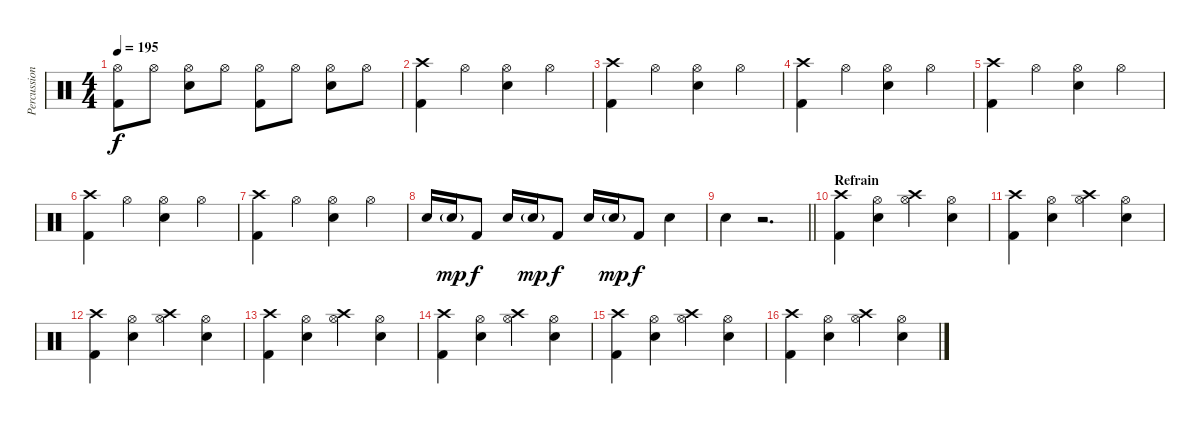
\track ("Percussions" "Percussion") {instrument percussion}
\staff {score}
\articulation defaults
\ts (4 4)
\tempo 195
\clef neutral
\ks c
("Hi-Hat (open)" "Kick (hit) 2").8{dy f} "Hi-Hat (open)".8 ("Hi-Hat (open)" "Electric Snare (hit)").8 "Hi-Hat (open)".8 ("Hi-Hat (open)" "Kick (hit) 2").8 "Hi-Hat (open)".8 ("Hi-Hat (open)" "Electric Snare (hit)").8 "Hi-Hat (open)".8 |
("Crash high (hit)" "Kick (hit) 2").4 "Hi-Hat (open)".4 ("Hi-Hat (open)" "Electric Snare (hit)").4 "Hi-Hat (open)".4 |
("Crash high (hit)" "Kick (hit) 2").4 "Hi-Hat (open)".4 ("Hi-Hat (open)" "Electric Snare (hit)").4 "Hi-Hat (open)".4 |
("Crash high (hit)" "Kick (hit) 2").4 "Hi-Hat (open)".4 ("Hi-Hat (open)" "Electric Snare (hit)").4 "Hi-Hat (open)".4 |
("Crash high (hit)" "Kick (hit) 2").4 "Hi-Hat (open)".4 ("Hi-Hat (open)" "Electric Snare (hit)").4 "Hi-Hat (open)".4 |
("Crash high (hit)" "Kick (hit) 2").4 "Hi-Hat (open)".4 ("Hi-Hat (open)" "Electric Snare (hit)").4 "Hi-Hat (open)".4 |
("Crash high (hit)" "Kick (hit) 2").4 "Hi-Hat (open)".4 ("Hi-Hat (open)" "Electric Snare (hit)").4 "Hi-Hat (open)".4 |
"Electric Snare (hit)".16 "Electric Snare (hit)"{g}.16{dy mp} "Kick (hit) 2".8{dy f} "Electric Snare (hit)".16 "Electric Snare (hit)"{g}.16{dy mp} "Kick (hit) 2".8{dy f} "Electric Snare (hit)".16 "Electric Snare (hit)"{g}.16{dy mp} "Kick (hit) 2".8{dy f} "Electric Snare (hit)".4 |
\barLineRight lightlight "Electric Snare (hit)".4
r.2{d} |
\section ("" "Refrain")
("Crash high (hit)" "Kick (hit) 2").4 ("Hi-Hat (open)" "Electric Snare (hit)").4 ("Crash high (hit)" "Hi-Hat (open)").4 ("Hi-Hat (open)" "Electric Snare (hit)").4 |
("Crash high (hit)" "Kick (hit) 2").4 ("Hi-Hat (open)" "Electric Snare (hit)").4 ("Crash high (hit)" "Hi-Hat (open)").4 ("Hi-Hat (open)" "Electric Snare (hit)").4 |
("Crash high (hit)" "Kick (hit) 2").4 ("Hi-Hat (open)" "Electric Snare (hit)").4 ("Crash high (hit)" "Hi-Hat (open)").4 ("Hi-Hat (open)" "Electric Snare (hit)").4 |
("Crash high (hit)" "Kick (hit) 2").4 ("Hi-Hat (open)" "Electric Snare (hit)").4 ("Crash high (hit)" "Hi-Hat (open)").4 ("Hi-Hat (open)" "Electric Snare (hit)").4 |
("Crash high (hit)" "Kick (hit) 2").4 ("Hi-Hat (open)" "Electric Snare (hit)").4 ("Crash high (hit)" "Hi-Hat (open)").4 ("Hi-Hat (open)" "Electric Snare (hit)").4 |
("Crash high (hit)" "Kick (hit) 2").4 ("Hi-Hat (open)" "Electric Snare (hit)").4 ("Crash high (hit)" "Hi-Hat (open)").4 ("Hi-Hat (open)" "Electric Snare (hit)").4 |
("Crash high (hit)" "Kick (hit) 2").4 ("Hi-Hat (open)" "Electric Snare (hit)").4 ("Crash high (hit)" "Hi-Hat (open)").4 ("Hi-Hat (open)" "Electric Snare (hit)").4
